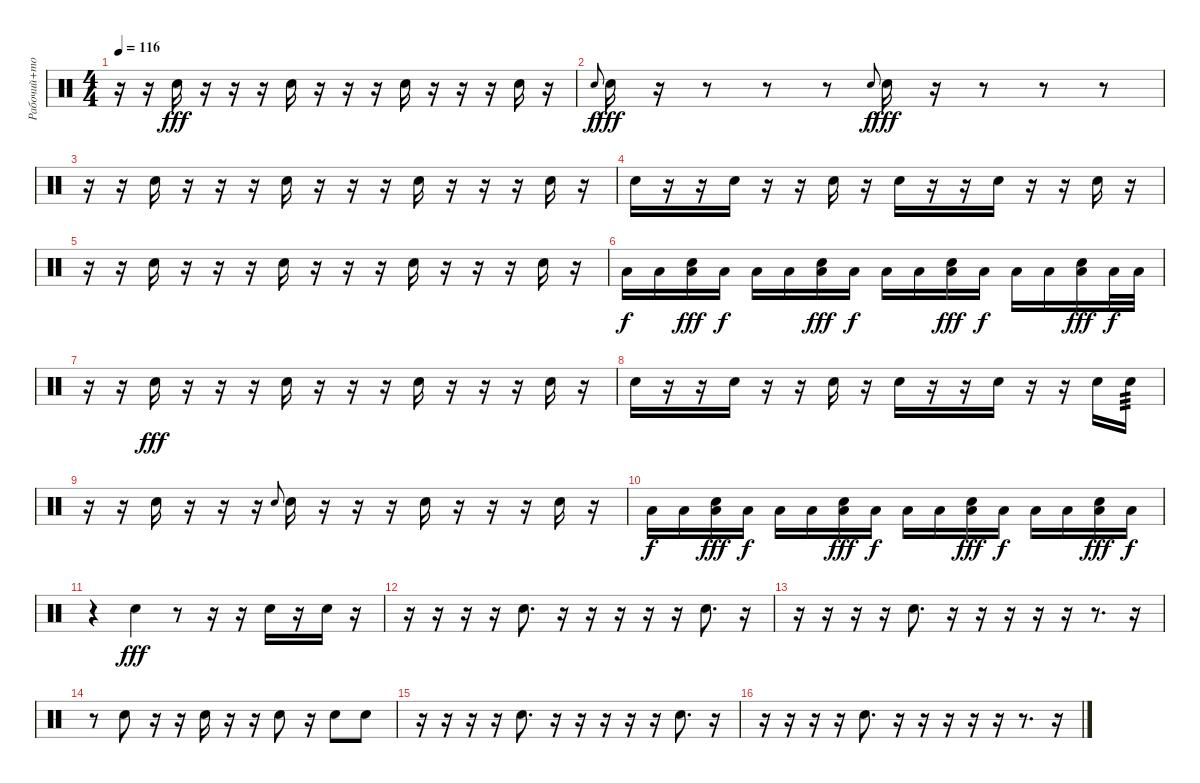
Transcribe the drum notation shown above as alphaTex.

\track ("Рабочий+томы" "Рабочий+то") {instrument percussion}
\staff {score}
\articulation defaults
\ts (4 4)
\tempo 116
\clef neutral
\ks c
r.16{dy fff} r.16 "Snare (hit) 2".16 r.16 r.16 r.16 "Snare (hit) 2".16 r.16 r.16 r.16 "Snare (hit) 2".16 r.16 r.16 r.16 "Snare (hit) 2".16 r.16 |
"Snare (hit) 2".8{gr onbeat dy f} "Snare (hit) 2".16{dy fff} r.16 r.8 r.8 r.8 "Snare (hit) 2".8{gr onbeat dy f} "Snare (hit) 2".16{dy fff} r.16 r.8 r.8 r.8 |
r.16 r.16 "Snare (hit) 2".16 r.16 r.16 r.16 "Snare (hit) 2".16 r.16 r.16 r.16 "Snare (hit) 2".16 r.16 r.16 r.16 "Snare (hit) 2".16 r.16 |
"Snare (hit) 2".16 r.16 r.16 "Snare (hit) 2".16 r.16 r.16 "Snare (hit) 2".16 r.16 "Snare (hit) 2".16 r.16 r.16 "Snare (hit) 2".16 r.16 r.16 "Snare (hit) 2".16 r.16 |
r.16 r.16 "Snare (hit) 2".16 r.16 r.16 r.16 "Snare (hit) 2".16 r.16 r.16 r.16 "Snare (hit) 2".16 r.16 r.16 r.16 "Snare (hit) 2".16 r.16 |
"Low Floor Tom (hit)".16{dy f} "Low Floor Tom (hit)".16 ("Low Floor Tom (hit)" "Snare (hit) 2").16{dy fff} "Low Floor Tom (hit)".16{dy f} "Low Floor Tom (hit)".16 "Low Floor Tom (hit)".16 ("Low Floor Tom (hit)" "Snare (hit) 2").16{dy fff} "Low Floor Tom (hit)".16{dy f} "Low Floor Tom (hit)".16 "Low Floor Tom (hit)".16 ("Low Floor Tom (hit)" "Snare (hit) 2").16{dy fff} "Low Floor Tom (hit)".16{dy f} "Low Floor Tom (hit)".16 "Low Floor Tom (hit)".16 ("Low Floor Tom (hit)" "Snare (hit) 2").16{dy fff} "Low Floor Tom (hit)".32{dy f} "Low Floor Tom (hit)".32 |
r.16 r.16 "Snare (hit) 2".16{dy fff} r.16 r.16 r.16 "Snare (hit) 2".16 r.16 r.16 r.16 "Snare (hit) 2".16 r.16 r.16 r.16 "Snare (hit) 2".16 r.16 |
"Snare (hit) 2".16 r.16 r.16 "Snare (hit) 2".16 r.16 r.16 "Snare (hit) 2".16 r.16 "Snare (hit) 2".16 r.16 r.16 "Snare (hit) 2".16 r.16 r.16 "Snare (hit) 2".16 "Snare (hit) 2".16{tp 3} |
r.16 r.16 "Snare (hit) 2".16 r.16 r.16 r.16 "Snare (hit) 2".8{gr onbeat} "Snare (hit) 2".16 r.16 r.16 r.16 "Snare (hit) 2".16 r.16 r.16 r.16 "Snare (hit) 2".16 r.16 |
"Low Floor Tom (hit)".16{dy f} "Low Floor Tom (hit)".16 ("Low Floor Tom (hit)" "Snare (hit) 2").16{dy fff} "Low Floor Tom (hit)".16{dy f} "Low Floor Tom (hit)".16 "Low Floor Tom (hit)".16 ("Low Floor Tom (hit)" "Snare (hit) 2").16{dy fff} "Low Floor Tom (hit)".16{dy f} "Low Floor Tom (hit)".16 "Low Floor Tom (hit)".16 ("Low Floor Tom (hit)" "Snare (hit) 2").16{dy fff} "Low Floor Tom (hit)".16{dy f} "Low Floor Tom (hit)".16 "Low Floor Tom (hit)".16 ("Low Floor Tom (hit)" "Snare (hit) 2").16{dy fff} "Low Floor Tom (hit)".16{dy f} |
r.4 "Snare (hit) 2".4{dy fff} r.8 r.16 r.16 "Snare (hit) 2".16 r.16 "Snare (hit) 2".16 r.16 |
r.16 r.16 r.16 r.16 "Snare (hit) 2".8{d} r.16 r.16 r.16 r.16 r.16 "Snare (hit) 2".8{d} r.16 |
r.16 r.16 r.16 r.16 "Snare (hit) 2".8{d} r.16 r.16 r.16 r.16 r.16 r.8{d} r.16 |
r.8 "Snare (hit) 2".8 r.16 r.16 "Snare (hit) 2".16 r.16 r.16 "Snare (hit) 2".8 r.16 "Snare (hit) 2".8 "Snare (hit) 2".8 |
r.16 r.16 r.16 r.16 "Snare (hit) 2".8{d} r.16 r.16 r.16 r.16 r.16 "Snare (hit) 2".8{d} r.16 |
r.16 r.16 r.16 r.16 "Snare (hit) 2".8{d} r.16 r.16 r.16 r.16 r.16 r.8{d} r.16
